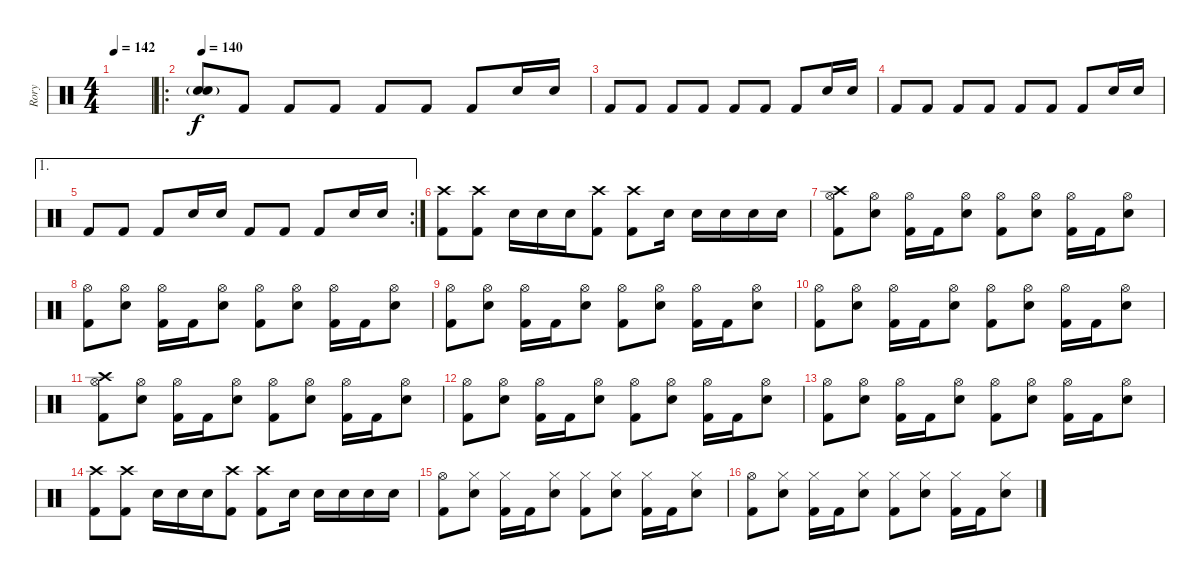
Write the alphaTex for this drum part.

\track ("Rory" "Rory") {instrument percussion}
\staff {score}
\articulation defaults
\ts (4 4)
\tempo 142
\clef neutral
\ks c
|
\ro
\tempo 140
("Electric Snare (hit)" "Electric Snare (hit)"{g}).8{bd 480} "Kick (hit) 2".8{dy f} "Kick (hit) 2".8 "Kick (hit) 2".8 "Kick (hit) 2".8 "Kick (hit) 2".8 "Kick (hit) 2".8 "Electric Snare (hit)".16 "Electric Snare (hit)".16 |
"Kick (hit) 2".8 "Kick (hit) 2".8 "Kick (hit) 2".8 "Kick (hit) 2".8 "Kick (hit) 2".8 "Kick (hit) 2".8 "Kick (hit) 2".8 "Electric Snare (hit)".16 "Electric Snare (hit)".16 |
"Kick (hit) 2".8 "Kick (hit) 2".8 "Kick (hit) 2".8 "Kick (hit) 2".8 "Kick (hit) 2".8 "Kick (hit) 2".8 "Kick (hit) 2".8 "Electric Snare (hit)".16 "Electric Snare (hit)".16 |
\ae 1
\rc 2 "Kick (hit) 2".8 "Kick (hit) 2".8 "Kick (hit) 2".8 "Electric Snare (hit)".16 "Electric Snare (hit)".16 "Kick (hit) 2".8 "Kick (hit) 2".8 "Kick (hit) 2".8 "Electric Snare (hit)".16 "Electric Snare (hit)".16
|
("Crash high (hit)" "Kick (hit) 2").8 ("Crash high (hit)" "Kick (hit) 2").8 "Electric Snare (hit)".16 "Electric Snare (hit)".16 "Electric Snare (hit)".16 ("Crash high (hit)" "Kick (hit) 2").8 ("Crash high (hit)" "Kick (hit) 2").8 "Electric Snare (hit)".16 "Electric Snare (hit)".16 "Electric Snare (hit)".16 "Electric Snare (hit)".16 "Electric Snare (hit)".16 |
("Crash high (hit)" "Hi-Hat (open)" "Kick (hit) 2").8 ("Hi-Hat (open)" "Electric Snare (hit)").8 ("Hi-Hat (open)" "Kick (hit) 2").16 "Kick (hit) 2".16 ("Hi-Hat (open)" "Electric Snare (hit)").8 ("Hi-Hat (open)" "Kick (hit) 2").8 ("Hi-Hat (open)" "Electric Snare (hit)").8 ("Hi-Hat (open)" "Kick (hit) 2").16 "Kick (hit) 2".16 ("Hi-Hat (open)" "Electric Snare (hit)").8 |
("Hi-Hat (open)" "Kick (hit) 2").8 ("Hi-Hat (open)" "Electric Snare (hit)").8 ("Hi-Hat (open)" "Kick (hit) 2").16 "Kick (hit) 2".16 ("Hi-Hat (open)" "Electric Snare (hit)").8 ("Hi-Hat (open)" "Kick (hit) 2").8 ("Hi-Hat (open)" "Electric Snare (hit)").8 ("Hi-Hat (open)" "Kick (hit) 2").16 "Kick (hit) 2".16 ("Hi-Hat (open)" "Electric Snare (hit)").8 |
("Hi-Hat (open)" "Kick (hit) 2").8 ("Hi-Hat (open)" "Electric Snare (hit)").8 ("Hi-Hat (open)" "Kick (hit) 2").16 "Kick (hit) 2".16 ("Hi-Hat (open)" "Electric Snare (hit)").8 ("Hi-Hat (open)" "Kick (hit) 2").8 ("Hi-Hat (open)" "Electric Snare (hit)").8 ("Hi-Hat (open)" "Kick (hit) 2").16 "Kick (hit) 2".16 ("Hi-Hat (open)" "Electric Snare (hit)").8 |
("Hi-Hat (open)" "Kick (hit) 2").8 ("Hi-Hat (open)" "Electric Snare (hit)").8 ("Hi-Hat (open)" "Kick (hit) 2").16 "Kick (hit) 2".16 ("Hi-Hat (open)" "Electric Snare (hit)").8 ("Hi-Hat (open)" "Kick (hit) 2").8 ("Hi-Hat (open)" "Electric Snare (hit)").8 ("Hi-Hat (open)" "Kick (hit) 2").16 "Kick (hit) 2".16 ("Hi-Hat (open)" "Electric Snare (hit)").8 |
("Crash high (hit)" "Hi-Hat (open)" "Kick (hit) 2").8 ("Hi-Hat (open)" "Electric Snare (hit)").8 ("Hi-Hat (open)" "Kick (hit) 2").16 "Kick (hit) 2".16 ("Hi-Hat (open)" "Electric Snare (hit)").8 ("Hi-Hat (open)" "Kick (hit) 2").8 ("Hi-Hat (open)" "Electric Snare (hit)").8 ("Hi-Hat (open)" "Kick (hit) 2").16 "Kick (hit) 2".16 ("Hi-Hat (open)" "Electric Snare (hit)").8 |
("Hi-Hat (open)" "Kick (hit) 2").8 ("Hi-Hat (open)" "Electric Snare (hit)").8 ("Hi-Hat (open)" "Kick (hit) 2").16 "Kick (hit) 2".16 ("Hi-Hat (open)" "Electric Snare (hit)").8 ("Hi-Hat (open)" "Kick (hit) 2").8 ("Hi-Hat (open)" "Electric Snare (hit)").8 ("Hi-Hat (open)" "Kick (hit) 2").16 "Kick (hit) 2".16 ("Hi-Hat (open)" "Electric Snare (hit)").8 |
("Hi-Hat (open)" "Kick (hit) 2").8 ("Hi-Hat (open)" "Electric Snare (hit)").8 ("Hi-Hat (open)" "Kick (hit) 2").16 "Kick (hit) 2".16 ("Hi-Hat (open)" "Electric Snare (hit)").8 ("Hi-Hat (open)" "Kick (hit) 2").8 ("Hi-Hat (open)" "Electric Snare (hit)").8 ("Hi-Hat (open)" "Kick (hit) 2").16 "Kick (hit) 2".16 ("Hi-Hat (open)" "Electric Snare (hit)").8 |
("Crash high (hit)" "Kick (hit) 2").8 ("Crash high (hit)" "Kick (hit) 2").8 "Electric Snare (hit)".16 "Electric Snare (hit)".16 "Electric Snare (hit)".16 ("Crash high (hit)" "Kick (hit) 2").8 ("Crash high (hit)" "Kick (hit) 2").8 "Electric Snare (hit)".16 "Electric Snare (hit)".16 "Electric Snare (hit)".16 "Electric Snare (hit)".16 "Electric Snare (hit)".16 |
("Hi-Hat (open)" "Kick (hit) 2").8 ("Hi-Hat (closed)" "Electric Snare (hit)").8 ("Hi-Hat (closed)" "Kick (hit) 2").16 "Kick (hit) 2".16 ("Hi-Hat (closed)" "Electric Snare (hit)").8 ("Hi-Hat (closed)" "Kick (hit) 2").8 ("Hi-Hat (closed)" "Electric Snare (hit)").8 ("Hi-Hat (closed)" "Kick (hit) 2").16 "Kick (hit) 2".16 ("Hi-Hat (closed)" "Electric Snare (hit)").8 |
("Hi-Hat (open)" "Kick (hit) 2").8 ("Hi-Hat (closed)" "Electric Snare (hit)").8 ("Hi-Hat (closed)" "Kick (hit) 2").16 "Kick (hit) 2".16 ("Hi-Hat (closed)" "Electric Snare (hit)").8 ("Hi-Hat (closed)" "Kick (hit) 2").8 ("Hi-Hat (closed)" "Electric Snare (hit)").8 ("Hi-Hat (closed)" "Kick (hit) 2").16 "Kick (hit) 2".16 ("Hi-Hat (closed)" "Electric Snare (hit)").8
